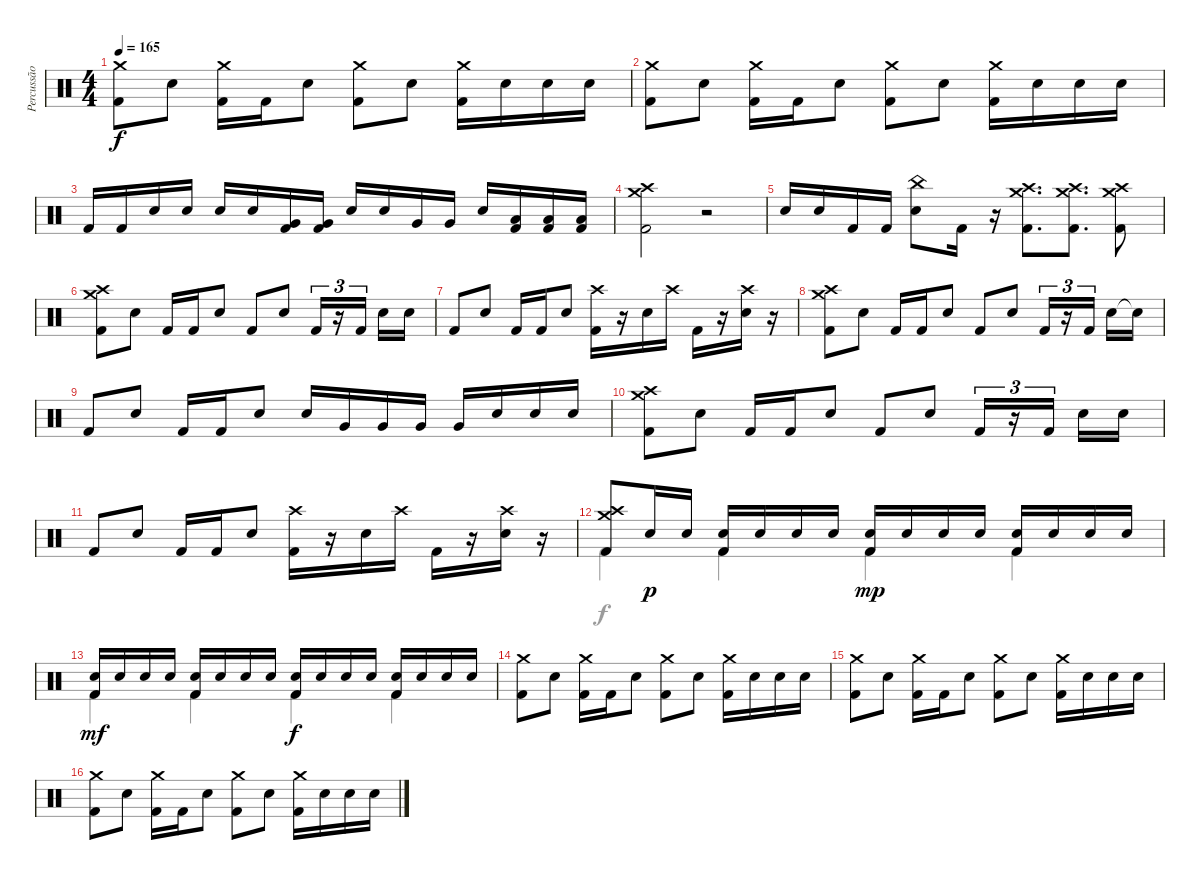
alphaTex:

\track ("Percussão" "Percussão") {instrument percussion}
\staff {score}
\articulation defaults
\voice
\ts (4 4)
\tempo 165
\clef neutral
\ks c
("Crash medium (hit)" "Kick (hit) 2").8{dy f} "Electric Snare (hit)".8 ("Crash medium (hit)" "Kick (hit) 2").16 "Kick (hit) 2".16 "Electric Snare (hit)".8 ("Crash medium (hit)" "Kick (hit) 2").8 "Electric Snare (hit)".8 ("Crash medium (hit)" "Kick (hit) 2").16 "Electric Snare (hit)".16 "Electric Snare (hit)".16 "Electric Snare (hit)".16 |
("Crash medium (hit)" "Kick (hit) 2").8 "Electric Snare (hit)".8 ("Crash medium (hit)" "Kick (hit) 2").16 "Kick (hit) 2".16 "Electric Snare (hit)".8 ("Crash medium (hit)" "Kick (hit) 2").8 "Electric Snare (hit)".8 ("Crash medium (hit)" "Kick (hit) 2").16 "Electric Snare (hit)".16 "Electric Snare (hit)".16 "Electric Snare (hit)".16 |
"Kick (hit) 2".16 "Kick (hit) 2".16 "Electric Snare (hit)".16 "Electric Snare (hit)".16 "Electric Snare (hit)".16 "Electric Snare (hit)".16 ("Very Low Tom (hit)" "Kick (hit) 2").16 ("Very Low Tom (hit)" "Kick (hit) 2").16 "Electric Snare (hit)".16 "Electric Snare (hit)".16 "Very Low Tom (hit)".16 "Very Low Tom (hit)".16 "Electric Snare (hit)".16 ("Low Floor Tom (hit)" "Kick (hit) 2").16 ("Low Floor Tom (hit)" "Kick (hit) 2").16 ("Low Floor Tom (hit)" "Kick (hit) 2").16 |
("Crash high (hit)" "Crash medium (hit)" "Kick (hit) 2").2 r.2 |
"Electric Snare (hit)".16 "Electric Snare (hit)".16 "Kick (hit) 2".16 "Kick (hit) 2".16 ("China (hit)" "Electric Snare (hit)").8 "Kick (hit) 2".16 r.16 ("Crash high (hit)" "Crash medium (hit)" "Kick (hit) 2").8{d} ("Crash high (hit)" "Crash medium (hit)" "Kick (hit) 2").8{d} ("Crash high (hit)" "Crash medium (hit)" "Kick (hit) 2").8 |
("Crash high (hit)" "Crash medium (hit)" "Kick (hit) 2").8 "Electric Snare (hit)".8 "Kick (hit) 2".16 "Kick (hit) 2".16 "Electric Snare (hit)".8 "Kick (hit) 2".8 "Electric Snare (hit)".8 "Kick (hit) 2".16{tu (3 2)} r.16{tu (3 2)} "Kick (hit) 2".16{tu (3 2) beam splitsecondary} "Electric Snare (hit)".16 "Electric Snare (hit)".16 |
"Kick (hit) 2".8 "Electric Snare (hit)".8 "Kick (hit) 2".16 "Kick (hit) 2".16 "Electric Snare (hit)".8 ("Crash high (hit)" "Kick (hit) 2").16 r.16 "Electric Snare (hit)".16 "Crash high (hit)".16 "Kick (hit) 2".16 r.16 ("Crash high (hit)" "Electric Snare (hit)").16 r.16 |
("Crash high (hit)" "Crash medium (hit)" "Kick (hit) 2").8 "Electric Snare (hit)".8 "Kick (hit) 2".16 "Kick (hit) 2".16 "Electric Snare (hit)".8 "Kick (hit) 2".8 "Electric Snare (hit)".8 "Kick (hit) 2".16{tu (3 2)} r.16{tu (3 2)} "Kick (hit) 2".16{tu (3 2) beam splitsecondary} "Electric Snare (hit)".16 "Electric Snare (hit)"{t}.16 |
"Kick (hit) 2".8 "Electric Snare (hit)".8 "Kick (hit) 2".16 "Kick (hit) 2".16 "Electric Snare (hit)".8 "Electric Snare (hit)".16 "Very Low Tom (hit)".16 "Very Low Tom (hit)".16 "Very Low Tom (hit)".16 "Very Low Tom (hit)".16 "Electric Snare (hit)".16 "Electric Snare (hit)".16 "Electric Snare (hit)".16 |
("Crash high (hit)" "Crash medium (hit)" "Kick (hit) 2").8 "Electric Snare (hit)".8 "Kick (hit) 2".16 "Kick (hit) 2".16 "Electric Snare (hit)".8 "Kick (hit) 2".8 "Electric Snare (hit)".8 "Kick (hit) 2".16{tu (3 2)} r.16{tu (3 2)} "Kick (hit) 2".16{tu (3 2) beam splitsecondary} "Electric Snare (hit)".16 "Electric Snare (hit)".16 |
"Kick (hit) 2".8 "Electric Snare (hit)".8 "Kick (hit) 2".16 "Kick (hit) 2".16 "Electric Snare (hit)".8 ("Crash high (hit)" "Kick (hit) 2").16 r.16 "Electric Snare (hit)".16 "Crash high (hit)".16 "Kick (hit) 2".16 r.16 ("Crash high (hit)" "Electric Snare (hit)").16 r.16 |
("Crash high (hit)" "Crash medium (hit)" "Kick (hit) 2").8 "Electric Snare (hit)".16{dy p} "Electric Snare (hit)".16 ("Electric Snare (hit)" "Kick (hit) 2").16 "Electric Snare (hit)".16 "Electric Snare (hit)".16 "Electric Snare (hit)".16 ("Electric Snare (hit)" "Kick (hit) 2").16{dy mp} "Electric Snare (hit)".16 "Electric Snare (hit)".16 "Electric Snare (hit)".16 ("Electric Snare (hit)" "Kick (hit) 2").16 "Electric Snare (hit)".16 "Electric Snare (hit)".16 "Electric Snare (hit)".16 |
("Electric Snare (hit)" "Kick (hit) 2").16{dy mf} "Electric Snare (hit)".16 "Electric Snare (hit)".16 "Electric Snare (hit)".16 ("Electric Snare (hit)" "Kick (hit) 2").16 "Electric Snare (hit)".16 "Electric Snare (hit)".16 "Electric Snare (hit)".16 ("Electric Snare (hit)" "Kick (hit) 2").16{dy f} "Electric Snare (hit)".16 "Electric Snare (hit)".16 "Electric Snare (hit)".16 ("Electric Snare (hit)" "Kick (hit) 2").16 "Electric Snare (hit)".16 "Electric Snare (hit)".16 "Electric Snare (hit)".16 |
("Crash medium (hit)" "Kick (hit) 2").8 "Electric Snare (hit)".8 ("Crash medium (hit)" "Kick (hit) 2").16 "Kick (hit) 2".16 "Electric Snare (hit)".8 ("Crash medium (hit)" "Kick (hit) 2").8 "Electric Snare (hit)".8 ("Crash medium (hit)" "Kick (hit) 2").16 "Electric Snare (hit)".16 "Electric Snare (hit)".16 "Electric Snare (hit)".16 |
("Crash medium (hit)" "Kick (hit) 2").8 "Electric Snare (hit)".8 ("Crash medium (hit)" "Kick (hit) 2").16 "Kick (hit) 2".16 "Electric Snare (hit)".8 ("Crash medium (hit)" "Kick (hit) 2").8 "Electric Snare (hit)".8 ("Crash medium (hit)" "Kick (hit) 2").16 "Electric Snare (hit)".16 "Electric Snare (hit)".16 "Electric Snare (hit)".16 |
("Crash medium (hit)" "Kick (hit) 2").8 "Electric Snare (hit)".8 ("Crash medium (hit)" "Kick (hit) 2").16 "Kick (hit) 2".16 "Electric Snare (hit)".8 ("Crash medium (hit)" "Kick (hit) 2").8 "Electric Snare (hit)".8 ("Crash medium (hit)" "Kick (hit) 2").16 "Electric Snare (hit)".16 "Electric Snare (hit)".16 "Electric Snare (hit)".16
\voice
\clef neutral
\ottava regular
\simile none
\ks c
|
|
|
|
|
|
|
|
|
|
|
"Kick (hit) 2".4 "Kick (hit) 2".4 "Kick (hit) 2".4 "Kick (hit) 2".4 |
"Kick (hit) 2".4 "Kick (hit) 2".4 "Kick (hit) 2".4 "Kick (hit) 2".4 |
|
|
